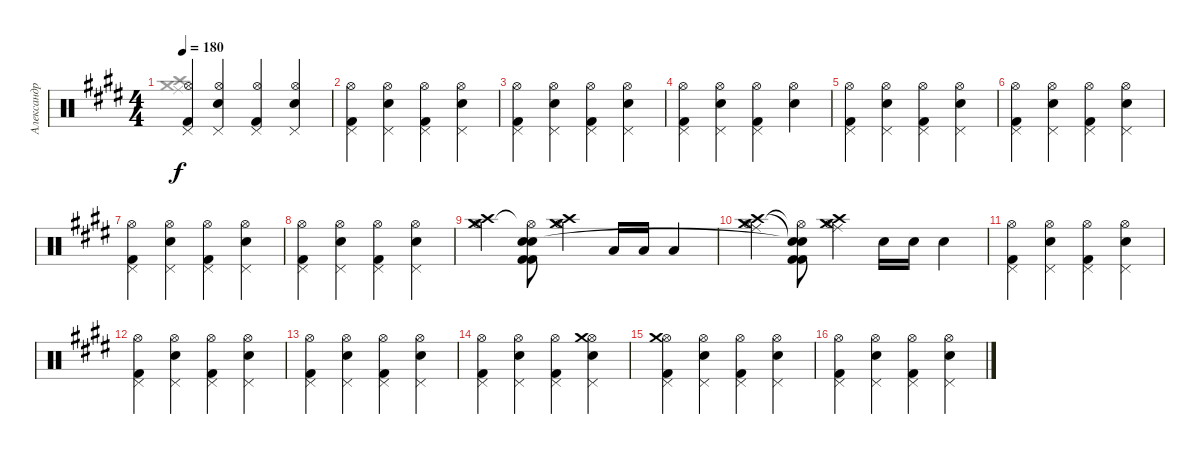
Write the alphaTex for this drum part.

\track ("Александр Новиков" "Александр ") {instrument percussion}
\staff {score}
\articulation defaults
\voice
\ts (4 4)
\tempo 180
\clef neutral
\ks c#minor
("Hi-Hat (open)" "Kick (hit) 2" "Pedal Hi-Hat (hit)").4{dy f} ("Hi-Hat (open)" "Electric Snare (hit)" "Pedal Hi-Hat (hit)").4 ("Hi-Hat (open)" "Kick (hit) 2" "Pedal Hi-Hat (hit)").4 ("Hi-Hat (open)" "Electric Snare (hit)" "Pedal Hi-Hat (hit)").4 |
("Hi-Hat (open)" "Kick (hit) 2" "Pedal Hi-Hat (hit)").4 ("Hi-Hat (open)" "Electric Snare (hit)" "Pedal Hi-Hat (hit)").4 ("Hi-Hat (open)" "Kick (hit) 2" "Pedal Hi-Hat (hit)").4 ("Hi-Hat (open)" "Electric Snare (hit)" "Pedal Hi-Hat (hit)").4 |
("Hi-Hat (open)" "Kick (hit) 2" "Pedal Hi-Hat (hit)").4 ("Hi-Hat (open)" "Electric Snare (hit)" "Pedal Hi-Hat (hit)").4 ("Hi-Hat (open)" "Kick (hit) 2" "Pedal Hi-Hat (hit)").4 ("Hi-Hat (open)" "Electric Snare (hit)" "Pedal Hi-Hat (hit)").4 |
("Hi-Hat (open)" "Kick (hit) 2" "Pedal Hi-Hat (hit)").4 ("Hi-Hat (open)" "Electric Snare (hit)" "Pedal Hi-Hat (hit)").4 ("Hi-Hat (open)" "Kick (hit) 2" "Pedal Hi-Hat (hit)").4 ("Hi-Hat (open)" "Electric Snare (hit)").4 |
("Hi-Hat (open)" "Kick (hit) 2" "Pedal Hi-Hat (hit)").4 ("Hi-Hat (open)" "Electric Snare (hit)" "Pedal Hi-Hat (hit)").4 ("Hi-Hat (open)" "Kick (hit) 2" "Pedal Hi-Hat (hit)").4 ("Hi-Hat (open)" "Electric Snare (hit)" "Pedal Hi-Hat (hit)").4 |
("Hi-Hat (open)" "Kick (hit) 2" "Pedal Hi-Hat (hit)").4 ("Hi-Hat (open)" "Electric Snare (hit)" "Pedal Hi-Hat (hit)").4 ("Hi-Hat (open)" "Kick (hit) 2" "Pedal Hi-Hat (hit)").4 ("Hi-Hat (open)" "Electric Snare (hit)" "Pedal Hi-Hat (hit)").4 |
("Hi-Hat (open)" "Kick (hit) 2" "Pedal Hi-Hat (hit)").4 ("Hi-Hat (open)" "Electric Snare (hit)" "Pedal Hi-Hat (hit)").4 ("Hi-Hat (open)" "Kick (hit) 2" "Pedal Hi-Hat (hit)").4 ("Hi-Hat (open)" "Electric Snare (hit)" "Pedal Hi-Hat (hit)").4 |
("Hi-Hat (open)" "Kick (hit) 2" "Pedal Hi-Hat (hit)").4 ("Hi-Hat (open)" "Electric Snare (hit)" "Pedal Hi-Hat (hit)").4 ("Hi-Hat (open)" "Kick (hit) 2" "Pedal Hi-Hat (hit)").4 ("Hi-Hat (open)" "Electric Snare (hit)" "Pedal Hi-Hat (hit)").4 |
("Hi-Hat (open)" "Crash medium (hit)" "Crash high (hit)").4 ("Hi-Hat (open)"{t} "Kick (hit) 2" "Kick (hit) 2" "Snare (hit)" "Snare (hit)").8 ("Hi-Hat (open)" "Crash medium (hit)" "Crash high (hit)").4 "Low Floor Tom (hit)".16 "Low Floor Tom (hit)".16 "Low Floor Tom (hit)".4 |
("Hi-Hat (open)" "Ride (middle)" "Crash medium (hit)" "Crash high (hit)").4 ("Hi-Hat (open)"{t} "Kick (hit) 2" "Kick (hit) 2" "Snare (hit)"{t} "Snare (hit)"{t}).8 ("Hi-Hat (open)" "Ride (middle)" "Crash medium (hit)" "Crash high (hit)").4 "Electric Snare (hit)".16 "Electric Snare (hit)".16 "Electric Snare (hit)".4 |
("Hi-Hat (open)" "Pedal Hi-Hat (hit)" "Kick (hit) 2").4 ("Hi-Hat (open)" "Pedal Hi-Hat (hit)" "Electric Snare (hit)").4 ("Hi-Hat (open)" "Pedal Hi-Hat (hit)" "Kick (hit) 2").4 ("Hi-Hat (open)" "Pedal Hi-Hat (hit)" "Electric Snare (hit)").4 |
("Hi-Hat (open)" "Pedal Hi-Hat (hit)" "Kick (hit) 2").4 ("Hi-Hat (open)" "Pedal Hi-Hat (hit)" "Electric Snare (hit)").4 ("Hi-Hat (open)" "Pedal Hi-Hat (hit)" "Kick (hit) 2").4 ("Hi-Hat (open)" "Pedal Hi-Hat (hit)" "Electric Snare (hit)").4 |
("Hi-Hat (open)" "Pedal Hi-Hat (hit)" "Kick (hit) 2").4 ("Hi-Hat (open)" "Pedal Hi-Hat (hit)" "Electric Snare (hit)").4 ("Hi-Hat (open)" "Pedal Hi-Hat (hit)" "Kick (hit) 2").4 ("Hi-Hat (open)" "Pedal Hi-Hat (hit)" "Electric Snare (hit)").4 |
("Hi-Hat (open)" "Pedal Hi-Hat (hit)" "Kick (hit) 2").4 ("Hi-Hat (open)" "Pedal Hi-Hat (hit)" "Electric Snare (hit)").4 ("Hi-Hat (open)" "Pedal Hi-Hat (hit)" "Kick (hit) 2").4 ("Hi-Hat (open)" "Pedal Hi-Hat (hit)" "Electric Snare (hit)" "Crash medium (hit)").4 |
("Hi-Hat (open)" "Pedal Hi-Hat (hit)" "Kick (hit) 2" "Crash medium (hit)").4 ("Hi-Hat (open)" "Pedal Hi-Hat (hit)" "Electric Snare (hit)").4 ("Hi-Hat (open)" "Pedal Hi-Hat (hit)" "Kick (hit) 2").4 ("Hi-Hat (open)" "Pedal Hi-Hat (hit)" "Electric Snare (hit)").4 |
("Hi-Hat (open)" "Pedal Hi-Hat (hit)" "Kick (hit) 2").4 ("Hi-Hat (open)" "Pedal Hi-Hat (hit)" "Electric Snare (hit)").4 ("Hi-Hat (open)" "Pedal Hi-Hat (hit)" "Kick (hit) 2").4 ("Hi-Hat (open)" "Pedal Hi-Hat (hit)" "Electric Snare (hit)").4
\voice
\clef neutral
\ottava regular
\simile none
\ks c#minor
("Crash high (hit)" "Crash medium (hit)" "Ride (middle)").1{dy f} |
|
|
|
|
|
|
|
|
|
|
|
|
|
|
